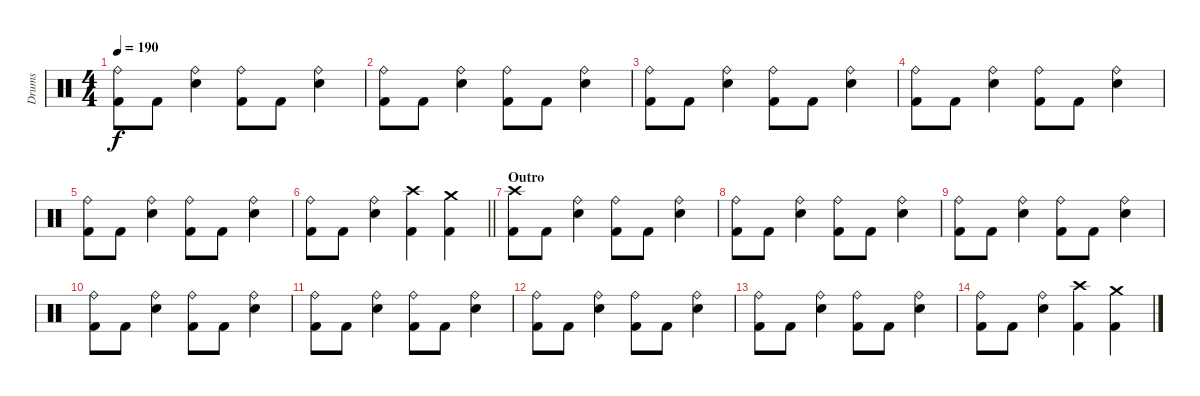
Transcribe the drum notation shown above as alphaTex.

\track ("Drums" "Drums") {instrument percussion}
\staff {score}
\articulation defaults
\ts (4 4)
\tempo 190
\clef neutral
\ks c
("Ride (bell)" "Kick (hit) 2").8{dy f} "Kick (hit) 2".8 ("Ride (bell)" "Snare (hit) 2").4 ("Ride (bell)" "Kick (hit) 2").8 "Kick (hit) 2".8 ("Ride (bell)" "Snare (hit) 2").4 |
("Ride (bell)" "Kick (hit) 2").8 "Kick (hit) 2".8 ("Ride (bell)" "Snare (hit) 2").4 ("Ride (bell)" "Kick (hit) 2").8 "Kick (hit) 2".8 ("Ride (bell)" "Snare (hit) 2").4 |
("Ride (bell)" "Kick (hit) 2").8 "Kick (hit) 2".8 ("Ride (bell)" "Snare (hit) 2").4 ("Ride (bell)" "Kick (hit) 2").8 "Kick (hit) 2".8 ("Ride (bell)" "Snare (hit) 2").4 |
("Ride (bell)" "Kick (hit) 2").8 "Kick (hit) 2".8 ("Ride (bell)" "Snare (hit) 2").4 ("Ride (bell)" "Kick (hit) 2").8 "Kick (hit) 2".8 ("Ride (bell)" "Snare (hit) 2").4 |
("Ride (bell)" "Kick (hit) 2").8 "Kick (hit) 2".8 ("Ride (bell)" "Snare (hit) 2").4 ("Ride (bell)" "Kick (hit) 2").8 "Kick (hit) 2".8 ("Ride (bell)" "Snare (hit) 2").4 |
\barLineRight lightlight
("Ride (bell)" "Kick (hit) 2").8 "Kick (hit) 2".8 ("Ride (bell)" "Snare (hit) 2").4 ("Crash high (hit)" "Kick (hit) 2").4 ("Crash medium (hit)" "Kick (hit) 2").4 |
\section ("" "Outro")
("Crash high (hit)" "Kick (hit) 2").8{volume 6} "Kick (hit) 2".8 ("Ride (bell)" "Snare (hit) 2").4 ("Ride (bell)" "Kick (hit) 2").8 "Kick (hit) 2".8 ("Ride (bell)" "Snare (hit) 2").4 |
("Ride (bell)" "Kick (hit) 2").8 "Kick (hit) 2".8 ("Ride (bell)" "Snare (hit) 2").4 ("Ride (bell)" "Kick (hit) 2").8 "Kick (hit) 2".8 ("Ride (bell)" "Snare (hit) 2").4 |
("Ride (bell)" "Kick (hit) 2").8 "Kick (hit) 2".8 ("Ride (bell)" "Snare (hit) 2").4 ("Ride (bell)" "Kick (hit) 2").8 "Kick (hit) 2".8 ("Ride (bell)" "Snare (hit) 2").4 |
("Ride (bell)" "Kick (hit) 2").8 "Kick (hit) 2".8 ("Ride (bell)" "Snare (hit) 2").4 ("Ride (bell)" "Kick (hit) 2").8 "Kick (hit) 2".8 ("Ride (bell)" "Snare (hit) 2").4 |
("Ride (bell)" "Kick (hit) 2").8{volume 0} "Kick (hit) 2".8 ("Ride (bell)" "Snare (hit) 2").4 ("Ride (bell)" "Kick (hit) 2").8 "Kick (hit) 2".8 ("Ride (bell)" "Snare (hit) 2").4 |
("Ride (bell)" "Kick (hit) 2").8 "Kick (hit) 2".8 ("Ride (bell)" "Snare (hit) 2").4 ("Ride (bell)" "Kick (hit) 2").8 "Kick (hit) 2".8 ("Ride (bell)" "Snare (hit) 2").4 |
("Ride (bell)" "Kick (hit) 2").8 "Kick (hit) 2".8 ("Ride (bell)" "Snare (hit) 2").4 ("Ride (bell)" "Kick (hit) 2").8 "Kick (hit) 2".8 ("Ride (bell)" "Snare (hit) 2").4 |
("Ride (bell)" "Kick (hit) 2").8 "Kick (hit) 2".8 ("Ride (bell)" "Snare (hit) 2").4 ("Crash high (hit)" "Kick (hit) 2").4 ("Crash medium (hit)" "Kick (hit) 2").4
